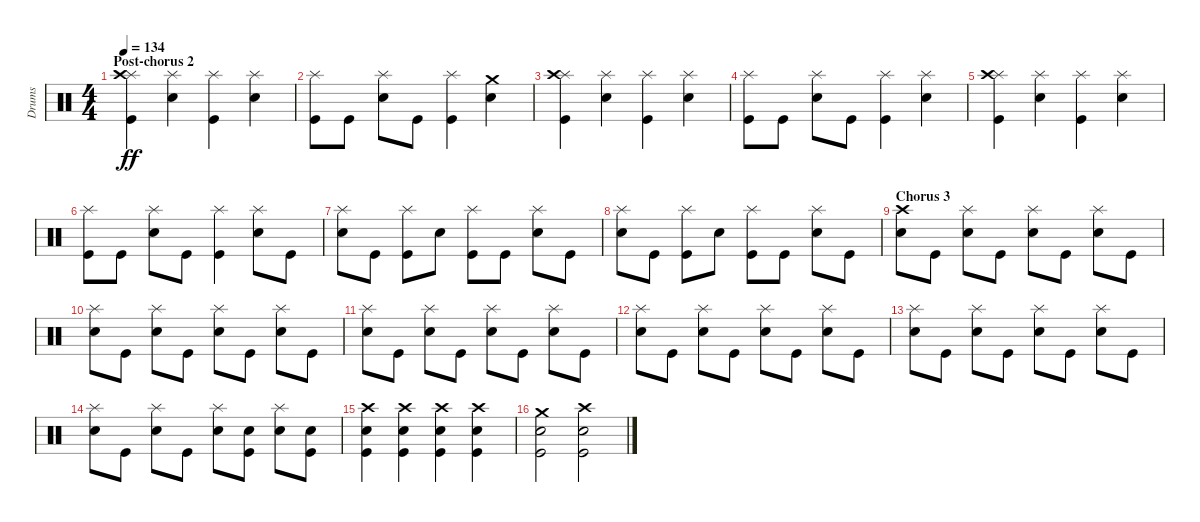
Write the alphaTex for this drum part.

\track ("Drums" "Drums") {instrument percussion}
\staff {score}
\articulation defaults
\ts (4 4)
\section ("" "Post-chorus 2")
\tempo 134
\clef neutral
\ks c
("Splash (hit)" "Crash high (hit)" "Kick (hit)").4{dy ff} ("Splash (hit)" "Snare (hit) 2").4 ("Splash (hit)" "Kick (hit)").4 ("Splash (hit)" "Snare (hit) 2").4 |
("Splash (hit)" "Kick (hit)").8 "Kick (hit)".8 ("Splash (hit)" "Snare (hit) 2").8 "Kick (hit)".8 ("Splash (hit)" "Kick (hit)").4 ("Crash medium (hit)" "Snare (hit) 2").4 |
("Splash (hit)" "Crash high (hit)" "Kick (hit)").4 ("Splash (hit)" "Snare (hit) 2").4 ("Splash (hit)" "Kick (hit)").4 ("Splash (hit)" "Snare (hit) 2").4 |
("Splash (hit)" "Kick (hit)").8 "Kick (hit)".8 ("Splash (hit)" "Snare (hit) 2").8 "Kick (hit)".8 ("Splash (hit)" "Kick (hit)").4 ("Splash (hit)" "Snare (hit) 2").4 |
("Splash (hit)" "Crash high (hit)" "Kick (hit)").4 ("Splash (hit)" "Snare (hit) 2").4 ("Splash (hit)" "Kick (hit)").4 ("Splash (hit)" "Snare (hit) 2").4 |
("Splash (hit)" "Kick (hit)").8 "Kick (hit)".8 ("Splash (hit)" "Snare (hit) 2").8 "Kick (hit)".8 ("Splash (hit)" "Kick (hit)").4 ("Splash (hit)" "Snare (hit) 2").8 "Kick (hit)".8 |
("Splash (hit)" "Snare (hit) 2").8 "Kick (hit)".8 ("Splash (hit)" "Kick (hit)").8 "Snare (hit) 2".8 ("Splash (hit)" "Kick (hit)").8 "Kick (hit)".8 ("Splash (hit)" "Snare (hit) 2").8 "Kick (hit)".8 |
("Splash (hit)" "Snare (hit) 2").8 "Kick (hit)".8 ("Splash (hit)" "Kick (hit)").8 "Snare (hit) 2".8 ("Splash (hit)" "Kick (hit)").8 "Kick (hit)".8 ("Splash (hit)" "Snare (hit) 2").8 "Kick (hit)".8 |
\section ("" "Chorus 3")
("Crash high (hit)" "Snare (hit) 2").8 "Kick (hit)".8 ("Splash (hit)" "Snare (hit) 2").8 "Kick (hit)".8 ("Splash (hit)" "Snare (hit) 2").8 "Kick (hit)".8 ("Splash (hit)" "Snare (hit) 2").8 "Kick (hit)".8 |
("Splash (hit)" "Snare (hit) 2").8 "Kick (hit)".8 ("Splash (hit)" "Snare (hit) 2").8 "Kick (hit)".8 ("Splash (hit)" "Snare (hit) 2").8 "Kick (hit)".8 ("Splash (hit)" "Snare (hit) 2").8 "Kick (hit)".8 |
("Splash (hit)" "Snare (hit) 2").8 "Kick (hit)".8 ("Splash (hit)" "Snare (hit) 2").8 "Kick (hit)".8 ("Splash (hit)" "Snare (hit) 2").8 "Kick (hit)".8 ("Splash (hit)" "Snare (hit) 2").8 "Kick (hit)".8 |
("Splash (hit)" "Snare (hit) 2").8 "Kick (hit)".8 ("Splash (hit)" "Snare (hit) 2").8 "Kick (hit)".8 ("Splash (hit)" "Snare (hit) 2").8 "Kick (hit)".8 ("Splash (hit)" "Snare (hit) 2").8 "Kick (hit)".8 |
("Splash (hit)" "Snare (hit) 2").8 "Kick (hit)".8 ("Splash (hit)" "Snare (hit) 2").8 "Kick (hit)".8 ("Splash (hit)" "Snare (hit) 2").8 "Kick (hit)".8 ("Splash (hit)" "Snare (hit) 2").8 "Kick (hit)".8 |
("Splash (hit)" "Snare (hit) 2").8 "Kick (hit)".8 ("Splash (hit)" "Snare (hit) 2").8 "Kick (hit)".8 ("Splash (hit)" "Snare (hit) 2").8 ("Snare (hit) 2" "Kick (hit)").8 ("Splash (hit)" "Snare (hit) 2").8 ("Snare (hit) 2" "Kick (hit)").8 |
("Crash high (hit)" "Snare (hit) 2" "Kick (hit)").4 ("Crash high (hit)" "Snare (hit) 2" "Kick (hit)").4 ("Crash high (hit)" "Snare (hit) 2" "Kick (hit)").4 ("Crash high (hit)" "Snare (hit) 2" "Kick (hit)").4 |
("Crash medium (hit)" "Snare (hit) 2" "Kick (hit)").2 ("Crash high (hit)" "Snare (hit) 2" "Kick (hit)").2
